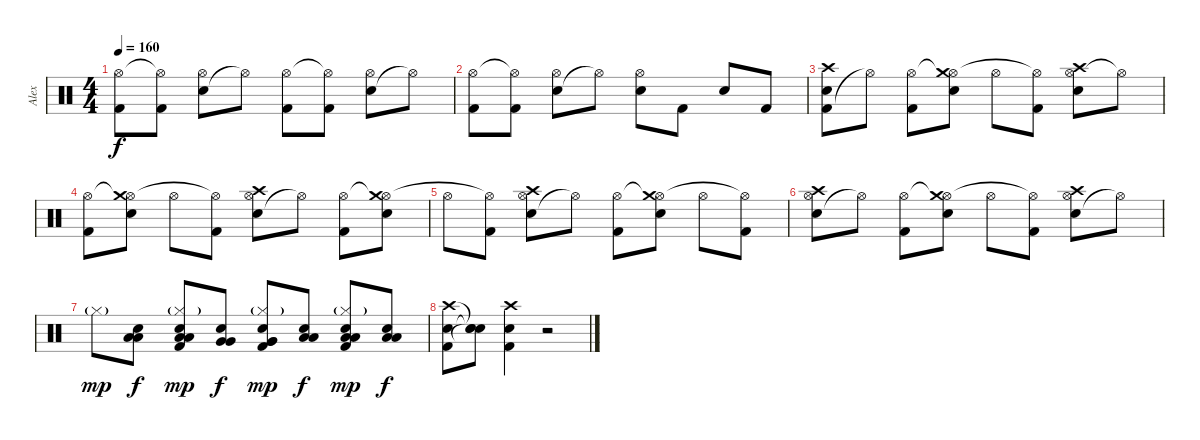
\track ("Alex" "Alex") {instrument percussion}
\staff {score}
\articulation defaults
\ts (4 4)
\tempo 160
\clef neutral
\ks c
("Kick (hit) 2" "Hi-Hat (open)").8{dy f} ("Kick (hit) 2" "Hi-Hat (open)"{t}).8 ("Snare (hit) 2" "Hi-Hat (open)").8 "Hi-Hat (open)"{t}.8 ("Kick (hit) 2" "Hi-Hat (open)").8 ("Kick (hit) 2" "Hi-Hat (open)"{t}).8 ("Snare (hit) 2" "Hi-Hat (open)").8 "Hi-Hat (open)"{t}.8 |
("Kick (hit) 2" "Hi-Hat (open)").8 ("Kick (hit) 2" "Hi-Hat (open)"{t}).8 ("Snare (hit) 2" "Hi-Hat (open)").8 "Hi-Hat (open)"{t}.8 ("Snare (hit) 2" "Hi-Hat (open)").8 "Kick (hit) 2".8 "Snare (hit) 2".8 "Kick (hit) 2".8 |
("Kick (hit) 2" "Crash high (hit)" "Snare (hit) 2").8 "Hi-Hat (open)"{t}.8 ("Kick (hit) 2" "Hi-Hat (open)").8 ("Snare (hit) 2" "Hi-Hat (open)"{t} "Crash medium (hit)").8 "Hi-Hat (open)".8 ("Kick (hit) 2" "Hi-Hat (open)"{t}).8 ("Hi-Hat (open)" "Snare (hit) 2" "Crash high (hit)").8 "Hi-Hat (open)"{t}.8 |
("Kick (hit) 2" "Hi-Hat (open)").8 ("Snare (hit) 2" "Hi-Hat (open)"{t} "Crash medium (hit)").8 "Hi-Hat (open)".8 ("Kick (hit) 2" "Hi-Hat (open)"{t}).8 ("Snare (hit) 2" "Hi-Hat (open)" "Crash high (hit)").8 "Hi-Hat (open)"{t}.8 ("Kick (hit) 2" "Hi-Hat (open)").8 ("Snare (hit) 2" "Hi-Hat (open)"{t} "Crash medium (hit)").8 |
"Hi-Hat (open)".8 ("Kick (hit) 2" "Hi-Hat (open)"{t}).8 ("Snare (hit) 2" "Hi-Hat (open)" "Crash high (hit)").8 "Hi-Hat (open)"{t}.8 ("Kick (hit) 2" "Hi-Hat (open)").8 ("Snare (hit) 2" "Hi-Hat (open)"{t} "Crash medium (hit)").8 "Hi-Hat (open)".8 ("Kick (hit) 2" "Hi-Hat (open)"{t}).8 |
("Snare (hit) 2" "Hi-Hat (open)" "Crash high (hit)").8 "Hi-Hat (open)"{t}.8 ("Kick (hit) 2" "Hi-Hat (open)").8 ("Snare (hit) 2" "Hi-Hat (open)"{t} "Crash medium (hit)").8 "Hi-Hat (open)".8 ("Kick (hit) 2" "Hi-Hat (open)"{t}).8 ("Snare (hit) 2" "Hi-Hat (open)" "Crash high (hit)").8 "Hi-Hat (open)"{t}.8 |
"Hi-Hat (closed)"{g}.8{dy mp} ("Low Tom (hit)" "Low Tom (hit)" "Snare (hit) 2").8{dy f} ("Kick (hit) 2" "Low Tom (hit)" "Low Tom (hit)" "Snare (hit) 2" "Hi-Hat (closed)"{g}).8{dy mp} ("Very Low Tom (hit)" "Very Low Tom (hit)" "Snare (hit) 2").8{dy f} ("Kick (hit) 2" "Very Low Tom (hit)" "Very Low Tom (hit)" "Snare (hit) 2" "Hi-Hat (closed)"{g}).8{dy mp} ("Low Floor Tom (hit)" "Low Floor Tom (hit)" "Snare (hit) 2").8{dy f} ("Kick (hit) 2" "Low Floor Tom (hit)" "Low Floor Tom (hit)" "Snare (hit) 2" "Hi-Hat (closed)"{g}).8{dy mp} ("Low Floor Tom (hit)" "Low Floor Tom (hit)" "Snare (hit) 2").8{dy f} |
("Kick (hit) 2" "Snare (hit) 2" "Crash high (hit)").8 ("Snare (hit)"{t} "Snare (hit)"{t} "Snare (hit)"{t}).8 ("Snare (hit) 2" "Kick (hit) 2" "Crash high (hit)").4 r.2
